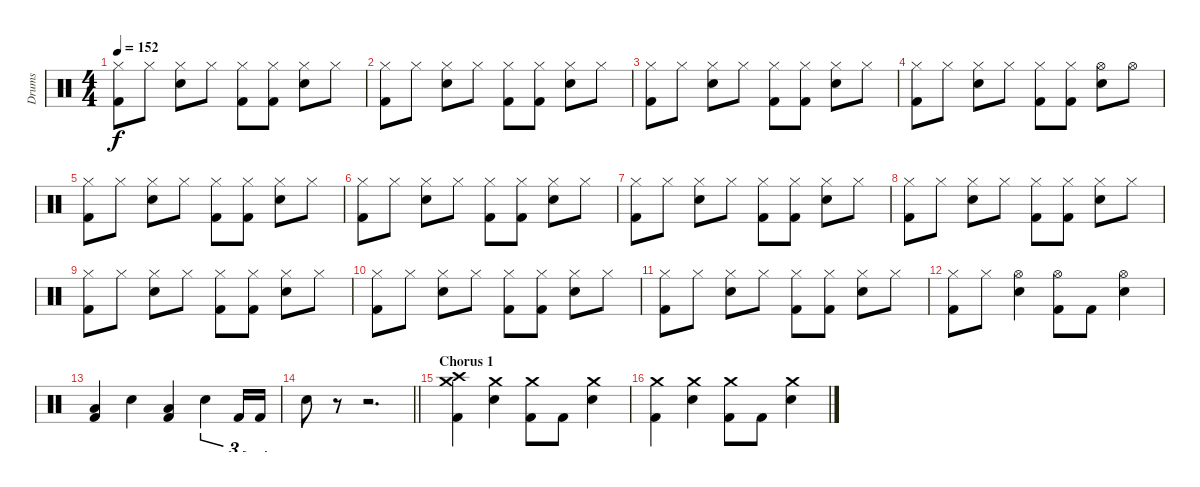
\track ("Drums" "Drums") {instrument percussion}
\staff {score}
\articulation defaults
\ts (4 4)
\tempo 152
\clef neutral
\ks c
("Hi-Hat (closed)" "Kick (hit) 2").8{dy f} "Hi-Hat (closed)".8 ("Hi-Hat (closed)" "Snare (hit) 2").8 "Hi-Hat (closed)".8 ("Hi-Hat (closed)" "Kick (hit) 2").8 ("Hi-Hat (closed)" "Kick (hit) 2").8 ("Hi-Hat (closed)" "Snare (hit) 2").8 "Hi-Hat (closed)".8 |
("Hi-Hat (closed)" "Kick (hit) 2").8 "Hi-Hat (closed)".8 ("Hi-Hat (closed)" "Snare (hit) 2").8 "Hi-Hat (closed)".8 ("Hi-Hat (closed)" "Kick (hit) 2").8 ("Hi-Hat (closed)" "Kick (hit) 2").8 ("Hi-Hat (closed)" "Snare (hit) 2").8 "Hi-Hat (closed)".8 |
("Hi-Hat (closed)" "Kick (hit) 2").8 "Hi-Hat (closed)".8 ("Hi-Hat (closed)" "Snare (hit) 2").8 "Hi-Hat (closed)".8 ("Hi-Hat (closed)" "Kick (hit) 2").8 ("Hi-Hat (closed)" "Kick (hit) 2").8 ("Hi-Hat (closed)" "Snare (hit) 2").8 "Hi-Hat (closed)".8 |
("Hi-Hat (closed)" "Kick (hit) 2").8 "Hi-Hat (closed)".8 ("Hi-Hat (closed)" "Snare (hit) 2").8 "Hi-Hat (closed)".8 ("Hi-Hat (closed)" "Kick (hit) 2").8 ("Hi-Hat (closed)" "Kick (hit) 2").8 ("Hi-Hat (open)" "Snare (hit) 2").8 "Hi-Hat (open)".8 |
("Hi-Hat (closed)" "Kick (hit) 2").8 "Hi-Hat (closed)".8 ("Hi-Hat (closed)" "Snare (hit) 2").8 "Hi-Hat (closed)".8 ("Hi-Hat (closed)" "Kick (hit) 2").8 ("Hi-Hat (closed)" "Kick (hit) 2").8 ("Hi-Hat (closed)" "Snare (hit) 2").8 "Hi-Hat (closed)".8 |
("Hi-Hat (closed)" "Kick (hit) 2").8 "Hi-Hat (closed)".8 ("Hi-Hat (closed)" "Snare (hit) 2").8 "Hi-Hat (closed)".8 ("Hi-Hat (closed)" "Kick (hit) 2").8 ("Hi-Hat (closed)" "Kick (hit) 2").8 ("Hi-Hat (closed)" "Snare (hit) 2").8 "Hi-Hat (closed)".8 |
("Hi-Hat (closed)" "Kick (hit) 2").8 "Hi-Hat (closed)".8 ("Hi-Hat (closed)" "Snare (hit) 2").8 "Hi-Hat (closed)".8 ("Hi-Hat (closed)" "Kick (hit) 2").8 ("Hi-Hat (closed)" "Kick (hit) 2").8 ("Hi-Hat (closed)" "Snare (hit) 2").8 "Hi-Hat (closed)".8 |
("Hi-Hat (closed)" "Kick (hit) 2").8 "Hi-Hat (closed)".8 ("Hi-Hat (closed)" "Snare (hit) 2").8 "Hi-Hat (closed)".8 ("Hi-Hat (closed)" "Kick (hit) 2").8 ("Hi-Hat (closed)" "Kick (hit) 2").8 ("Hi-Hat (closed)" "Snare (hit) 2").8 "Hi-Hat (closed)".8 |
("Hi-Hat (closed)" "Kick (hit) 2").8 "Hi-Hat (closed)".8 ("Hi-Hat (closed)" "Snare (hit) 2").8 "Hi-Hat (closed)".8 ("Hi-Hat (closed)" "Kick (hit) 2").8 ("Hi-Hat (closed)" "Kick (hit) 2").8 ("Hi-Hat (closed)" "Snare (hit) 2").8 "Hi-Hat (closed)".8 |
("Hi-Hat (closed)" "Kick (hit) 2").8 "Hi-Hat (closed)".8 ("Hi-Hat (closed)" "Snare (hit) 2").8 "Hi-Hat (closed)".8 ("Hi-Hat (closed)" "Kick (hit) 2").8 ("Hi-Hat (closed)" "Kick (hit) 2").8 ("Hi-Hat (closed)" "Snare (hit) 2").8 "Hi-Hat (closed)".8 |
("Hi-Hat (closed)" "Kick (hit) 2").8 "Hi-Hat (closed)".8 ("Hi-Hat (closed)" "Snare (hit) 2").8 "Hi-Hat (closed)".8 ("Hi-Hat (closed)" "Kick (hit) 2").8 ("Hi-Hat (closed)" "Kick (hit) 2").8 ("Hi-Hat (closed)" "Snare (hit) 2").8 "Hi-Hat (closed)".8 |
("Hi-Hat (closed)" "Kick (hit) 2").8 "Hi-Hat (closed)".8 ("Hi-Hat (open)" "Snare (hit) 2").4 ("Hi-Hat (open)" "Kick (hit) 2").8 "Kick (hit) 2".8 ("Hi-Hat (open)" "Snare (hit) 2").4 |
("Low Floor Tom (hit)" "Kick (hit) 2").4 "Snare (hit) 2".4 ("Low Floor Tom (hit)" "Kick (hit) 2").4 "Snare (hit) 2".4{tu (3 2)} "Kick (hit) 2".16{tu (3 2)} "Kick (hit) 2".16{tu (3 2)} |
\barLineRight lightlight "Snare (hit) 2".8
r.8 r.2{d} |
\section ("" "Chorus 1")
("Crash high (hit)" "Crash medium (hit)" "Kick (hit) 2").4 ("Crash medium (hit)" "Snare (hit) 2").4 ("Crash medium (hit)" "Kick (hit) 2").8 "Kick (hit) 2".8 ("Crash medium (hit)" "Snare (hit) 2").4 |
("Crash medium (hit)" "Kick (hit) 2").4 ("Crash medium (hit)" "Snare (hit) 2").4 ("Crash medium (hit)" "Kick (hit) 2").8 "Kick (hit) 2".8 ("Crash medium (hit)" "Snare (hit) 2").4
